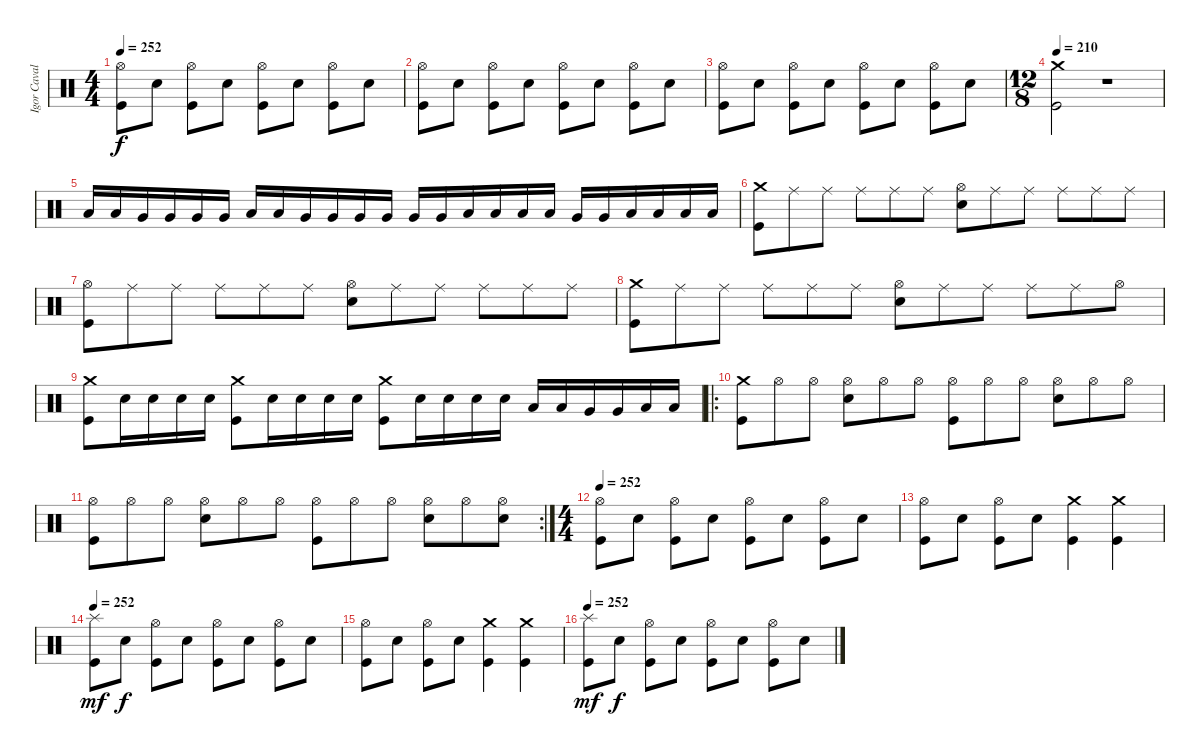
\track ("Igor Cavalera" "Igor Caval") {instrument percussion}
\staff {score}
\articulation defaults
\ts (4 4)
\tempo 252
\clef neutral
\ks c
("Hi-Hat (open)" "Kick (hit)").8{dy f} "Electric Snare (hit)".8 ("Hi-Hat (open)" "Kick (hit)").8 "Electric Snare (hit)".8 ("Hi-Hat (open)" "Kick (hit)").8 "Electric Snare (hit)".8 ("Hi-Hat (open)" "Kick (hit)").8 "Electric Snare (hit)".8 |
("Hi-Hat (open)" "Kick (hit)").8 "Electric Snare (hit)".8 ("Hi-Hat (open)" "Kick (hit)").8 "Electric Snare (hit)".8 ("Hi-Hat (open)" "Kick (hit)").8 "Electric Snare (hit)".8 ("Hi-Hat (open)" "Kick (hit)").8 "Electric Snare (hit)".8 |
("Hi-Hat (open)" "Kick (hit)").8 "Electric Snare (hit)".8 ("Hi-Hat (open)" "Kick (hit)").8 "Electric Snare (hit)".8 ("Hi-Hat (open)" "Kick (hit)").8 "Electric Snare (hit)".8 ("Hi-Hat (open)" "Kick (hit)").8 "Electric Snare (hit)".8 |
\ts (12 8)
\tempo 210
("Crash medium (hit)" "Kick (hit)").2 r.1 |
"Low Tom (hit)".16 "Low Tom (hit)".16 "Very Low Tom (hit)".16 "Very Low Tom (hit)".16 "Very Low Tom (hit)".16 "Very Low Tom (hit)".16 "Low Tom (hit)".16 "Low Tom (hit)".16 "Very Low Tom (hit)".16 "Very Low Tom (hit)".16 "Very Low Tom (hit)".16 "Very Low Tom (hit)".16 "Very Low Tom (hit)".16 "Very Low Tom (hit)".16 "Low Floor Tom (hit)".16 "Low Floor Tom (hit)".16 "Low Floor Tom (hit)".16 "Low Floor Tom (hit)".16 "Very Low Tom (hit)".16 "Very Low Tom (hit)".16 "Low Floor Tom (hit)".16 "Low Floor Tom (hit)".16 "Low Floor Tom (hit)".16 "Low Floor Tom (hit)".16 |
("Crash medium (hit)" "Kick (hit)").8 "Ride (middle)".8 "Ride (middle)".8 "Ride (middle)".8 "Ride (middle)".8 "Ride (middle)".8 ("Hi-Hat (open)" "Electric Snare (hit)").8 "Ride (middle)".8 "Ride (middle)".8 "Ride (middle)".8 "Ride (middle)".8 "Ride (middle)".8 |
("Hi-Hat (open)" "Kick (hit)").8 "Ride (middle)".8 "Ride (middle)".8 "Ride (middle)".8 "Ride (middle)".8 "Ride (middle)".8 ("Hi-Hat (open)" "Electric Snare (hit)").8 "Ride (middle)".8 "Ride (middle)".8 "Ride (middle)".8 "Ride (middle)".8 "Ride (middle)".8 |
("Crash medium (hit)" "Kick (hit)").8 "Ride (middle)".8 "Ride (middle)".8 "Ride (middle)".8 "Ride (middle)".8 "Ride (middle)".8 ("Hi-Hat (open)" "Electric Snare (hit)").8 "Ride (middle)".8 "Ride (middle)".8 "Ride (middle)".8 "Ride (middle)".8 "Hi-Hat (open)".8 |
("Crash medium (hit)" "Kick (hit)").8 "Electric Snare (hit)".16 "Electric Snare (hit)".16 "Electric Snare (hit)".16 "Electric Snare (hit)".16 ("Crash medium (hit)" "Kick (hit)").8 "Electric Snare (hit)".16 "Electric Snare (hit)".16 "Electric Snare (hit)".16 "Electric Snare (hit)".16 ("Crash medium (hit)" "Kick (hit)").8 "Electric Snare (hit)".16 "Electric Snare (hit)".16 "Electric Snare (hit)".16 "Electric Snare (hit)".16 "Low Tom (hit)".16 "Low Tom (hit)".16 "Very Low Tom (hit)".16 "Very Low Tom (hit)".16 "Low Floor Tom (hit)".16 "Low Floor Tom (hit)".16 |
\ro
("Crash medium (hit)" "Kick (hit)").8 "Hi-Hat (open)".8 "Hi-Hat (open)".8 ("Hi-Hat (open)" "Electric Snare (hit)").8 "Hi-Hat (open)".8 "Hi-Hat (open)".8 ("Hi-Hat (open)" "Kick (hit)").8 "Hi-Hat (open)".8 "Hi-Hat (open)".8 ("Hi-Hat (open)" "Electric Snare (hit)").8 "Hi-Hat (open)".8 "Hi-Hat (open)".8 |
\rc 2
("Hi-Hat (open)" "Kick (hit)").8 "Hi-Hat (open)".8 "Hi-Hat (open)".8 ("Hi-Hat (open)" "Electric Snare (hit)").8 "Hi-Hat (open)".8 "Hi-Hat (open)".8 ("Hi-Hat (open)" "Kick (hit)").8 "Hi-Hat (open)".8 "Hi-Hat (open)".8 ("Hi-Hat (open)" "Electric Snare (hit)").8 "Hi-Hat (open)".8 ("Hi-Hat (open)" "Electric Snare (hit)").8 |
\ts (4 4)
\tempo 252
("Hi-Hat (open)" "Kick (hit)").8 "Electric Snare (hit)".8 ("Hi-Hat (open)" "Kick (hit)").8 "Electric Snare (hit)".8 ("Hi-Hat (open)" "Kick (hit)").8 "Electric Snare (hit)".8 ("Hi-Hat (open)" "Kick (hit)").8 "Electric Snare (hit)".8 |
("Hi-Hat (open)" "Kick (hit)").8 "Electric Snare (hit)".8 ("Hi-Hat (open)" "Kick (hit)").8 "Electric Snare (hit)".8 ("Crash medium (hit)" "Kick (hit)").4 ("Crash medium (hit)" "Kick (hit)").4 |
\tempo 252
("Splash (hit)" "Kick (hit)").8{dy mf} "Electric Snare (hit)".8{dy f} ("Hi-Hat (open)" "Kick (hit)").8 "Electric Snare (hit)".8 ("Hi-Hat (open)" "Kick (hit)").8 "Electric Snare (hit)".8 ("Hi-Hat (open)" "Kick (hit)").8 "Electric Snare (hit)".8 |
("Hi-Hat (open)" "Kick (hit)").8 "Electric Snare (hit)".8 ("Hi-Hat (open)" "Kick (hit)").8 "Electric Snare (hit)".8 ("Crash medium (hit)" "Kick (hit)").4 ("Crash medium (hit)" "Kick (hit)").4 |
\tempo 252
("Splash (hit)" "Kick (hit)").8{dy mf} "Electric Snare (hit)".8{dy f} ("Hi-Hat (open)" "Kick (hit)").8 "Electric Snare (hit)".8 ("Hi-Hat (open)" "Kick (hit)").8 "Electric Snare (hit)".8 ("Hi-Hat (open)" "Kick (hit)").8 "Electric Snare (hit)".8
